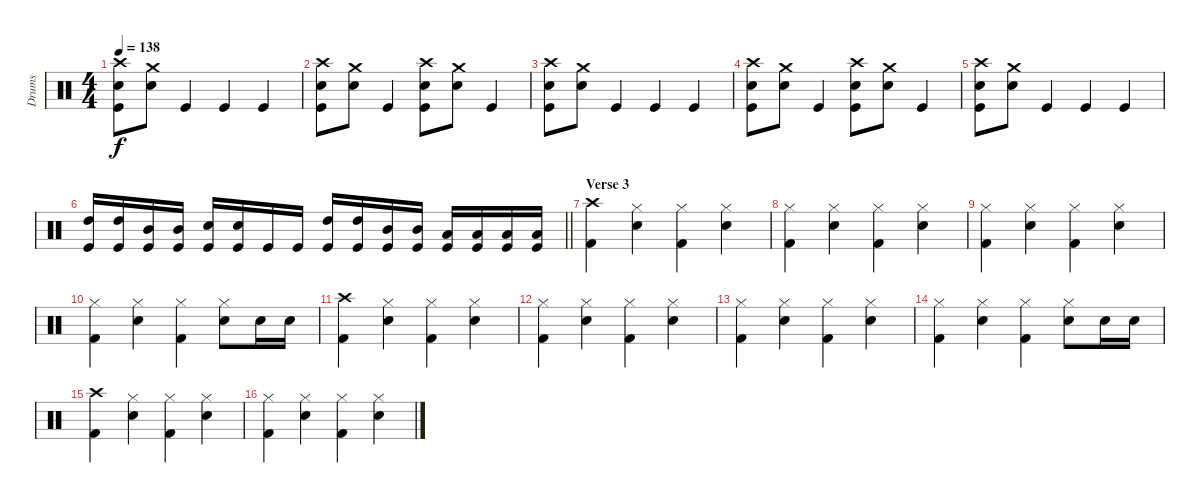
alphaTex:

\track ("Drums" "Drums") {instrument percussion}
\staff {score}
\articulation defaults
\ts (4 4)
\tempo 138
\clef neutral
\ks c
("Crash high (hit)" "Snare (hit) 2" "Kick (hit)").8{dy f} ("Crash medium (hit)" "Snare (hit) 2").8 "Kick (hit)".4 "Kick (hit)".4 "Kick (hit)".4 |
("Crash high (hit)" "Snare (hit) 2" "Kick (hit)").8 ("Crash medium (hit)" "Snare (hit) 2").8 "Kick (hit)".4 ("Crash high (hit)" "Snare (hit) 2" "Kick (hit)").8 ("Crash medium (hit)" "Snare (hit) 2").8 "Kick (hit)".4 |
("Crash high (hit)" "Snare (hit) 2" "Kick (hit)").8 ("Crash medium (hit)" "Snare (hit) 2").8 "Kick (hit)".4 "Kick (hit)".4 "Kick (hit)".4 |
("Crash high (hit)" "Snare (hit) 2" "Kick (hit)").8 ("Crash medium (hit)" "Snare (hit) 2").8 "Kick (hit)".4 ("Crash high (hit)" "Snare (hit) 2" "Kick (hit)").8 ("Crash medium (hit)" "Snare (hit) 2").8 "Kick (hit)".4 |
("Crash high (hit)" "Snare (hit) 2" "Kick (hit)").8 ("Crash medium (hit)" "Snare (hit) 2").8 "Kick (hit)".4 "Kick (hit)".4 "Kick (hit)".4 |
\barLineRight lightlight
("High Tom (hit)" "Kick (hit)").16 ("High Tom (hit)" "Kick (hit)").16 ("Mid Tom (hit)" "Kick (hit)").16 ("Mid Tom (hit)" "Kick (hit)").16 ("Snare (hit) 2" "Kick (hit)").16 ("Snare (hit) 2" "Kick (hit)").16 "Kick (hit)".16 "Kick (hit)".16 ("High Tom (hit)" "Kick (hit)").16 ("High Tom (hit)" "Kick (hit)").16 ("Mid Tom (hit)" "Kick (hit)").16 ("Mid Tom (hit)" "Kick (hit)").16 ("Low Tom (hit)" "Kick (hit)").16 ("Low Tom (hit)" "Kick (hit)").16 ("Low Floor Tom (hit)" "Kick (hit)").16 ("Low Floor Tom (hit)" "Kick (hit)").16 |
\section ("" "Verse 3")
("Crash high (hit)" "Kick (hit) 2").4 ("Snare (hit) 2" "Hi-Hat (closed)").4 ("Hi-Hat (closed)" "Kick (hit) 2").4 ("Snare (hit) 2" "Hi-Hat (closed)").4 |
("Hi-Hat (closed)" "Kick (hit) 2").4 ("Snare (hit) 2" "Hi-Hat (closed)").4 ("Hi-Hat (closed)" "Kick (hit) 2").4 ("Snare (hit) 2" "Hi-Hat (closed)").4 |
("Hi-Hat (closed)" "Kick (hit) 2").4 ("Snare (hit) 2" "Hi-Hat (closed)").4 ("Hi-Hat (closed)" "Kick (hit) 2").4 ("Snare (hit) 2" "Hi-Hat (closed)").4 |
("Hi-Hat (closed)" "Kick (hit) 2").4 ("Snare (hit) 2" "Hi-Hat (closed)").4 ("Hi-Hat (closed)" "Kick (hit) 2").4 ("Snare (hit) 2" "Hi-Hat (closed)").8 "Snare (hit) 2".16 "Snare (hit) 2".16 |
("Crash high (hit)" "Kick (hit) 2").4 ("Snare (hit) 2" "Hi-Hat (closed)").4 ("Hi-Hat (closed)" "Kick (hit) 2").4 ("Snare (hit) 2" "Hi-Hat (closed)").4 |
("Hi-Hat (closed)" "Kick (hit) 2").4 ("Snare (hit) 2" "Hi-Hat (closed)").4 ("Hi-Hat (closed)" "Kick (hit) 2").4 ("Snare (hit) 2" "Hi-Hat (closed)").4 |
("Hi-Hat (closed)" "Kick (hit) 2").4 ("Snare (hit) 2" "Hi-Hat (closed)").4 ("Hi-Hat (closed)" "Kick (hit) 2").4 ("Snare (hit) 2" "Hi-Hat (closed)").4 |
("Hi-Hat (closed)" "Kick (hit) 2").4 ("Snare (hit) 2" "Hi-Hat (closed)").4 ("Hi-Hat (closed)" "Kick (hit) 2").4 ("Snare (hit) 2" "Hi-Hat (closed)").8 "Snare (hit) 2".16 "Snare (hit) 2".16 |
("Crash high (hit)" "Kick (hit) 2").4 ("Snare (hit) 2" "Hi-Hat (closed)").4 ("Hi-Hat (closed)" "Kick (hit) 2").4 ("Snare (hit) 2" "Hi-Hat (closed)").4 |
("Hi-Hat (closed)" "Kick (hit) 2").4 ("Snare (hit) 2" "Hi-Hat (closed)").4 ("Hi-Hat (closed)" "Kick (hit) 2").4 ("Snare (hit) 2" "Hi-Hat (closed)").4
